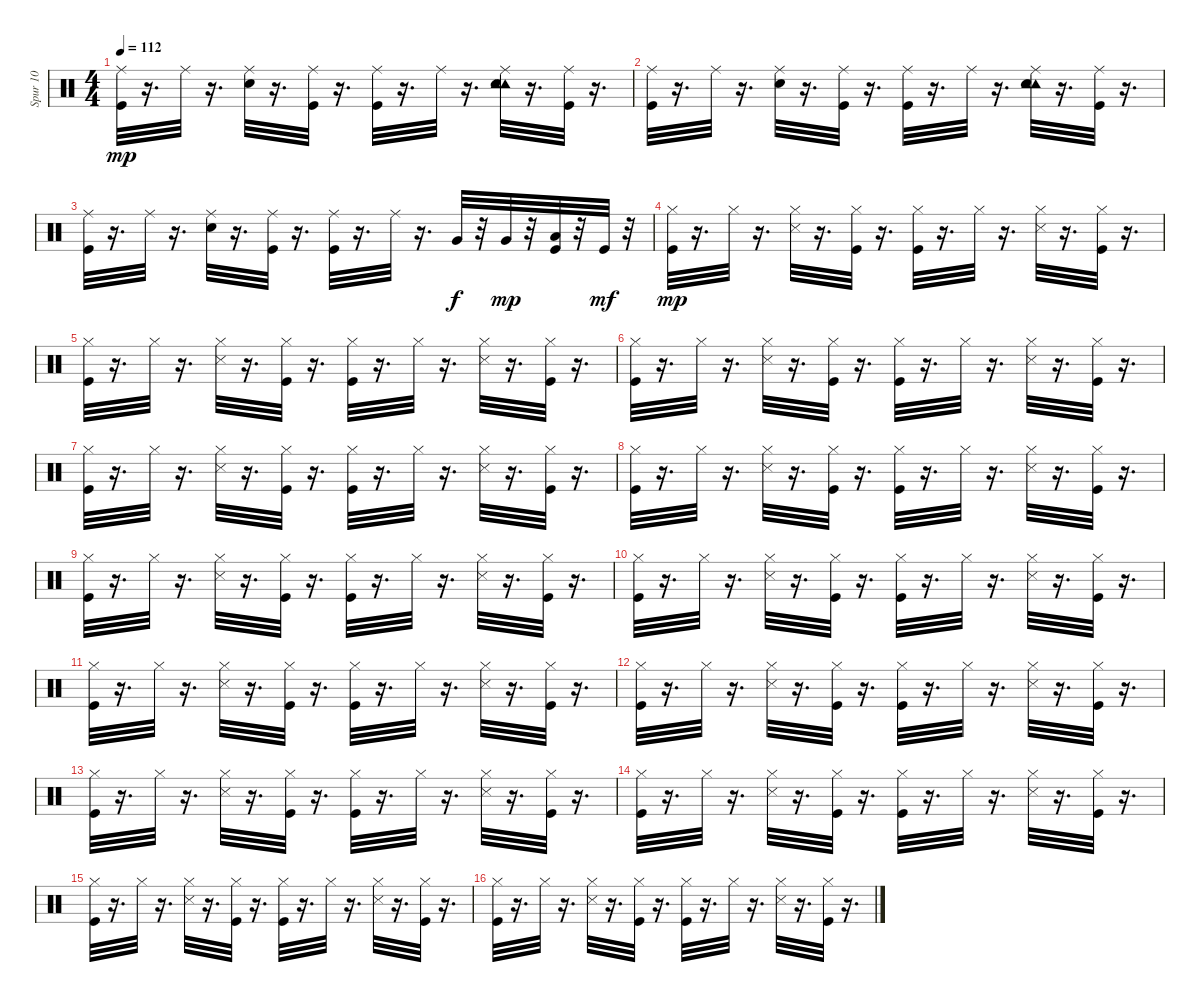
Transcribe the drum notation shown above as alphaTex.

\track ("Spur 10" "Spur 10") {instrument percussion}
\staff {score}
\articulation defaults
\ts (4 4)
\tempo 112
\clef neutral
\ks c
("Kick (hit)" "Ride (middle)").32{dy mp} r.16{d} "Ride (middle)".32 r.16{d} ("Snare (hit) 2" "Ride (middle)").32 r.16{d} ("Kick (hit)" "Ride (middle)").32 r.16{d} ("Kick (hit)" "Ride (middle)").32 r.16{d} "Ride (middle)".32 r.16{d} ("Tambourine (hit)" "Snare (hit) 2" "Tambourine (hit)" "Ride (middle)").32 r.16{d} ("Kick (hit)" "Ride (middle)").32 r.16{d} |
("Kick (hit)" "Ride (middle)").32 r.16{d} "Ride (middle)".32 r.16{d} ("Snare (hit) 2" "Ride (middle)").32 r.16{d} ("Kick (hit)" "Ride (middle)").32 r.16{d} ("Kick (hit)" "Ride (middle)").32 r.16{d} "Ride (middle)".32 r.16{d} ("Tambourine (hit)" "Snare (hit) 2" "Tambourine (hit)" "Ride (middle)").32 r.16{d} ("Kick (hit)" "Ride (middle)").32 r.16{d} |
("Kick (hit)" "Ride (middle)").32 r.16{d} "Ride (middle)".32 r.16{d} ("Snare (hit) 2" "Ride (middle)").32 r.16{d} ("Kick (hit)" "Ride (middle)").32 r.16{d} ("Kick (hit)" "Ride (middle)").32 r.16{d} "Ride (middle)".32 r.16{d} "Very Low Tom (hit)".32{dy f} r.32 "Very Low Tom (hit)".32{dy mp} r.32 ("Kick (hit)" "Low Floor Tom (hit)").32 r.32 "Kick (hit)".32{dy mf} r.32 |
("Kick (hit)" "Hi-Hat (closed)").32{dy mp} r.16{d} "Hi-Hat (closed)".32 r.16{d} ("Snare (side stick) 3" "Hi-Hat (closed)").32 r.16{d} ("Kick (hit)" "Hi-Hat (closed)").32 r.16{d} ("Kick (hit)" "Hi-Hat (closed)").32 r.16{d} "Hi-Hat (closed)".32 r.16{d} ("Snare (side stick) 3" "Hi-Hat (closed)").32 r.16{d} ("Kick (hit)" "Hi-Hat (closed)").32 r.16{d} |
("Kick (hit)" "Hi-Hat (closed)").32 r.16{d} "Hi-Hat (closed)".32 r.16{d} ("Snare (side stick) 3" "Hi-Hat (closed)").32 r.16{d} ("Kick (hit)" "Hi-Hat (closed)").32 r.16{d} ("Kick (hit)" "Hi-Hat (closed)").32 r.16{d} "Hi-Hat (closed)".32 r.16{d} ("Snare (side stick) 3" "Hi-Hat (closed)").32 r.16{d} ("Kick (hit)" "Hi-Hat (closed)").32 r.16{d} |
("Kick (hit)" "Hi-Hat (closed)").32 r.16{d} "Hi-Hat (closed)".32 r.16{d} ("Snare (side stick) 3" "Hi-Hat (closed)").32 r.16{d} ("Kick (hit)" "Hi-Hat (closed)").32 r.16{d} ("Kick (hit)" "Hi-Hat (closed)").32 r.16{d} "Hi-Hat (closed)".32 r.16{d} ("Snare (side stick) 3" "Hi-Hat (closed)").32 r.16{d} ("Kick (hit)" "Hi-Hat (closed)").32 r.16{d} |
("Kick (hit)" "Hi-Hat (closed)").32 r.16{d} "Hi-Hat (closed)".32 r.16{d} ("Snare (side stick) 3" "Hi-Hat (closed)").32 r.16{d} ("Kick (hit)" "Hi-Hat (closed)").32 r.16{d} ("Kick (hit)" "Hi-Hat (closed)").32 r.16{d} "Hi-Hat (closed)".32 r.16{d} ("Snare (side stick) 3" "Hi-Hat (closed)").32 r.16{d} ("Kick (hit)" "Hi-Hat (closed)").32 r.16{d} |
("Kick (hit)" "Hi-Hat (closed)").32 r.16{d} "Hi-Hat (closed)".32 r.16{d} ("Snare (side stick) 3" "Hi-Hat (closed)").32 r.16{d} ("Kick (hit)" "Hi-Hat (closed)").32 r.16{d} ("Kick (hit)" "Hi-Hat (closed)").32 r.16{d} "Hi-Hat (closed)".32 r.16{d} ("Snare (side stick) 3" "Hi-Hat (closed)").32 r.16{d} ("Kick (hit)" "Hi-Hat (closed)").32 r.16{d} |
("Kick (hit)" "Hi-Hat (closed)").32 r.16{d} "Hi-Hat (closed)".32 r.16{d} ("Snare (side stick) 3" "Hi-Hat (closed)").32 r.16{d} ("Kick (hit)" "Hi-Hat (closed)").32 r.16{d} ("Kick (hit)" "Hi-Hat (closed)").32 r.16{d} "Hi-Hat (closed)".32 r.16{d} ("Snare (side stick) 3" "Hi-Hat (closed)").32 r.16{d} ("Kick (hit)" "Hi-Hat (closed)").32 r.16{d} |
("Kick (hit)" "Hi-Hat (closed)").32 r.16{d} "Hi-Hat (closed)".32 r.16{d} ("Snare (side stick) 3" "Hi-Hat (closed)").32 r.16{d} ("Kick (hit)" "Hi-Hat (closed)").32 r.16{d} ("Kick (hit)" "Hi-Hat (closed)").32 r.16{d} "Hi-Hat (closed)".32 r.16{d} ("Snare (side stick) 3" "Hi-Hat (closed)").32 r.16{d} ("Kick (hit)" "Hi-Hat (closed)").32 r.16{d} |
("Kick (hit)" "Hi-Hat (closed)").32 r.16{d} "Hi-Hat (closed)".32 r.16{d} ("Snare (side stick) 3" "Hi-Hat (closed)").32 r.16{d} ("Kick (hit)" "Hi-Hat (closed)").32 r.16{d} ("Kick (hit)" "Hi-Hat (closed)").32 r.16{d} "Hi-Hat (closed)".32 r.16{d} ("Snare (side stick) 3" "Hi-Hat (closed)").32 r.16{d} ("Kick (hit)" "Hi-Hat (closed)").32 r.16{d} |
("Kick (hit)" "Hi-Hat (closed)").32 r.16{d} "Hi-Hat (closed)".32 r.16{d} ("Snare (side stick) 3" "Hi-Hat (closed)").32 r.16{d} ("Kick (hit)" "Hi-Hat (closed)").32 r.16{d} ("Kick (hit)" "Hi-Hat (closed)").32 r.16{d} "Hi-Hat (closed)".32 r.16{d} ("Snare (side stick) 3" "Hi-Hat (closed)").32 r.16{d} ("Kick (hit)" "Hi-Hat (closed)").32 r.16{d} |
("Kick (hit)" "Hi-Hat (closed)").32 r.16{d} "Hi-Hat (closed)".32 r.16{d} ("Snare (side stick) 3" "Hi-Hat (closed)").32 r.16{d} ("Kick (hit)" "Hi-Hat (closed)").32 r.16{d} ("Kick (hit)" "Hi-Hat (closed)").32 r.16{d} "Hi-Hat (closed)".32 r.16{d} ("Snare (side stick) 3" "Hi-Hat (closed)").32 r.16{d} ("Kick (hit)" "Hi-Hat (closed)").32 r.16{d} |
("Kick (hit)" "Hi-Hat (closed)").32 r.16{d} "Hi-Hat (closed)".32 r.16{d} ("Snare (side stick) 3" "Hi-Hat (closed)").32 r.16{d} ("Kick (hit)" "Hi-Hat (closed)").32 r.16{d} ("Kick (hit)" "Hi-Hat (closed)").32 r.16{d} "Hi-Hat (closed)".32 r.16{d} ("Snare (side stick) 3" "Hi-Hat (closed)").32 r.16{d} ("Kick (hit)" "Hi-Hat (closed)").32 r.16{d} |
("Kick (hit)" "Hi-Hat (closed)").32 r.16{d} "Hi-Hat (closed)".32 r.16{d} ("Snare (side stick) 3" "Hi-Hat (closed)").32 r.16{d} ("Kick (hit)" "Hi-Hat (closed)").32 r.16{d} ("Kick (hit)" "Hi-Hat (closed)").32 r.16{d} "Hi-Hat (closed)".32 r.16{d} ("Snare (side stick) 3" "Hi-Hat (closed)").32 r.16{d} ("Kick (hit)" "Hi-Hat (closed)").32 r.16{d} |
("Kick (hit)" "Hi-Hat (closed)").32 r.16{d} "Hi-Hat (closed)".32 r.16{d} ("Snare (side stick) 3" "Hi-Hat (closed)").32 r.16{d} ("Kick (hit)" "Hi-Hat (closed)").32 r.16{d} ("Kick (hit)" "Hi-Hat (closed)").32 r.16{d} "Hi-Hat (closed)".32 r.16{d} ("Snare (side stick) 3" "Hi-Hat (closed)").32 r.16{d} ("Kick (hit)" "Hi-Hat (closed)").32 r.16{d}
